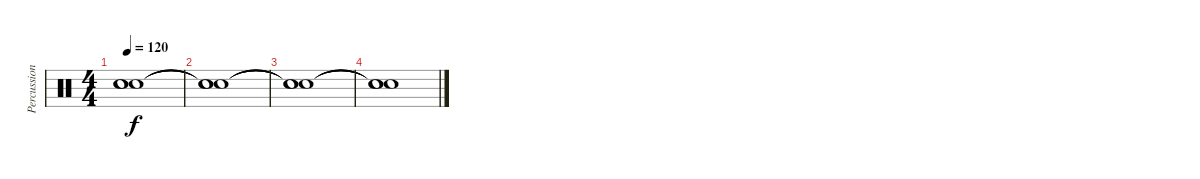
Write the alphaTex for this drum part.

\track ("Percussion" "Percussion") {instrument percussion}
\staff {score}
\articulation defaults
\ts (4 4)
\tempo 120
\clef neutral
\ks c
("Snare (hit)"{t} "Snare (hit)"{t} "Snare (hit)"{t}).1{dy f} |
("Snare (hit)"{t} "Snare (hit)"{t} "Snare (hit)"{t}).1 |
("Snare (hit)"{t} "Snare (hit)"{t} "Snare (hit)"{t}).1 |
("Snare (hit)"{t} "Snare (hit)"{t} "Snare (hit)"{t}).1
